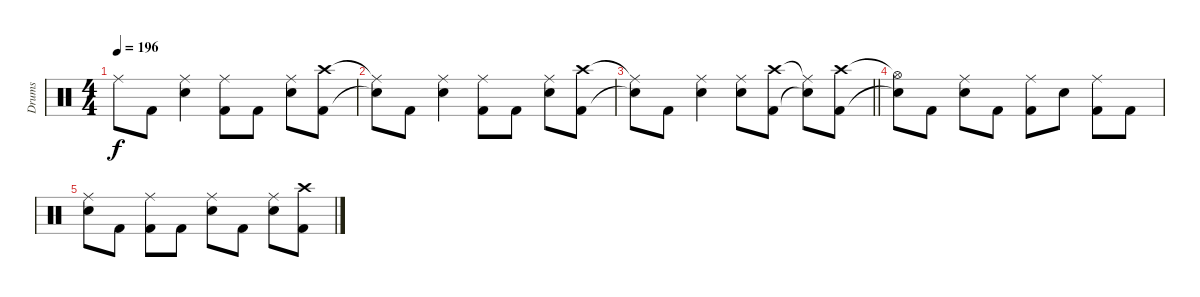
\track ("Drums" "Drums") {instrument percussion}
\staff {score}
\articulation defaults
\ts (4 4)
\tempo 196
\clef neutral
\ks c "Ride (middle)".8{dy f} "Kick (hit) 2".8
("Ride (middle)" "Snare (hit) 2").4 ("Ride (middle)" "Kick (hit) 2").8 "Kick (hit) 2".8 ("Ride (middle)" "Snare (hit) 2").8 ("Crash high (hit)" "Kick (hit) 2").8 |
("Ride (middle)"{t} "Snare (hit)"{t}).8 "Kick (hit) 2".8 ("Ride (middle)" "Snare (hit) 2").4 ("Ride (middle)" "Kick (hit) 2").8 "Kick (hit) 2".8 ("Ride (middle)" "Snare (hit) 2").8 ("Crash high (hit)" "Kick (hit) 2").8 |
\barLineRight lightlight
("Ride (middle)"{t} "Snare (hit)"{t}).8 "Kick (hit) 2".8 ("Ride (middle)" "Snare (hit) 2").4 ("Ride (middle)" "Snare (hit) 2").8 ("Crash high (hit)" "Kick (hit) 2").8 ("Ride (middle)"{t} "Snare (hit)"{t}).8 ("Crash high (hit)" "Kick (hit) 2").8 |
("Hi-Hat (open)"{t} "Snare (hit)"{t}).8 "Kick (hit) 2".8 ("Ride (middle)" "Snare (hit) 2").8 "Kick (hit) 2".8 ("Ride (middle)" "Kick (hit) 2").8 "Snare (hit) 2".8 ("Ride (middle)" "Kick (hit) 2").8 "Kick (hit) 2".8 |
("Ride (middle)" "Snare (hit) 2").8 "Kick (hit) 2".8 ("Ride (middle)" "Kick (hit) 2").8 "Kick (hit) 2".8 ("Ride (middle)" "Snare (hit) 2").8 "Kick (hit) 2".8 ("Ride (middle)" "Snare (hit) 2").8 ("Crash high (hit)" "Kick (hit) 2").8
